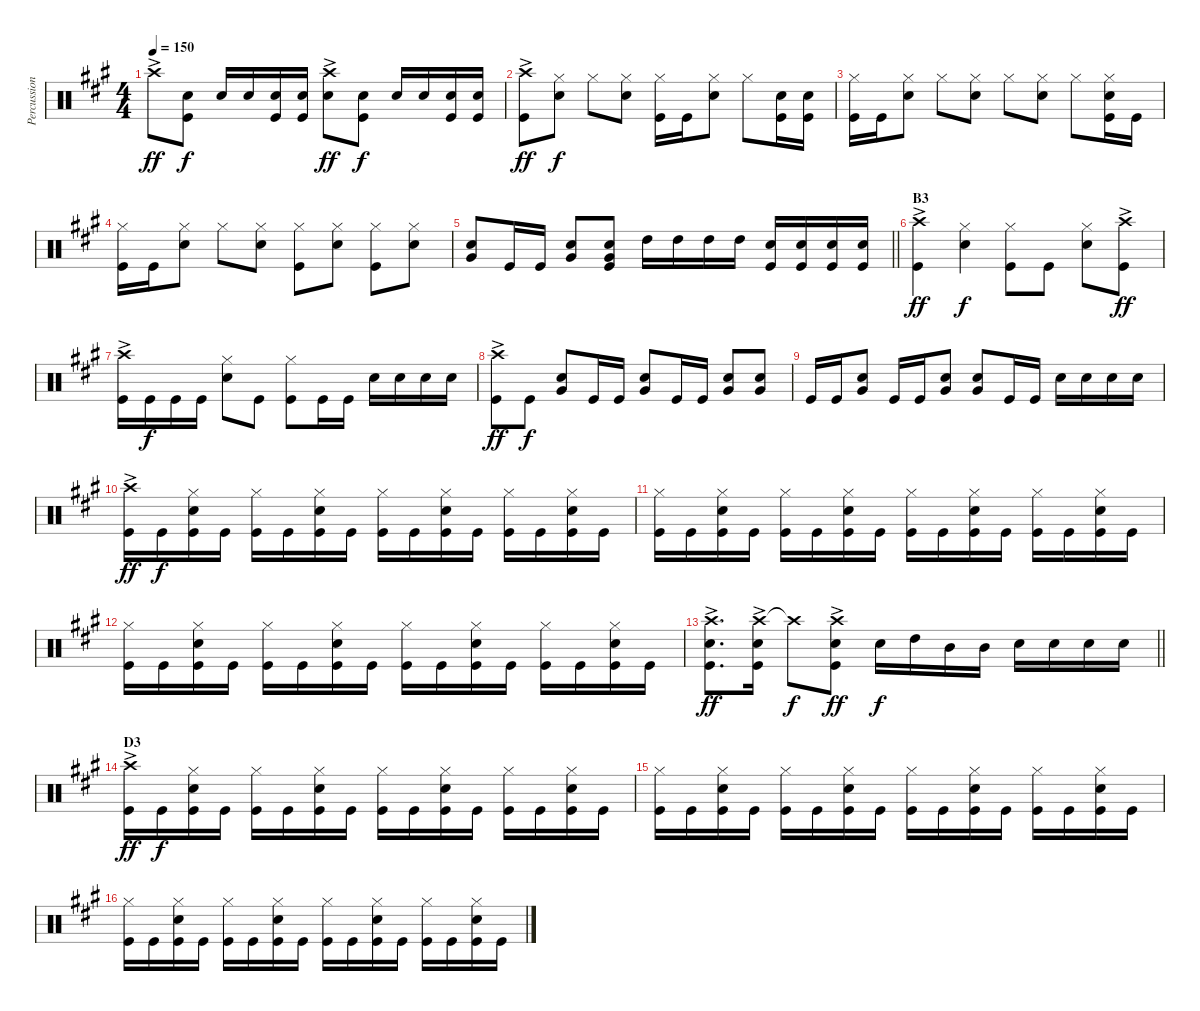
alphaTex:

\track ("Percussion" "Percussion") {instrument percussion}
\staff {score}
\articulation defaults
\ts (4 4)
\tempo 150
\clef neutral
\ks a "Crash high (hit)"{ac}.8{dy ff}
("Snare (hit) 2" "Kick (hit)").8{dy f} "Snare (hit) 2".16 "Snare (hit) 2".16 ("Snare (hit) 2" "Kick (hit)").16 ("Snare (hit) 2" "Kick (hit)").16 ("Crash high (hit)"{ac} "Snare (hit) 2").8{dy ff} ("Snare (hit) 2" "Kick (hit)").8{dy f} "Snare (hit) 2".16 "Snare (hit) 2".16 ("Snare (hit) 2" "Kick (hit)").16 ("Snare (hit) 2" "Kick (hit)").16 |
("Crash high (hit)"{ac} "Kick (hit)").8{dy ff} ("Hi-Hat (closed)" "Snare (hit) 2").8{dy f} "Hi-Hat (closed)".8 ("Hi-Hat (closed)" "Snare (hit) 2").8 ("Kick (hit)" "Hi-Hat (closed)").16 "Kick (hit)".16 ("Hi-Hat (closed)" "Snare (hit) 2").8 "Hi-Hat (closed)".8 ("Snare (hit) 2" "Kick (hit)").16 ("Kick (hit)" "Snare (hit) 2").16 |
("Hi-Hat (closed)" "Kick (hit)").16 "Kick (hit)".16 ("Hi-Hat (closed)" "Snare (hit) 2").8 "Hi-Hat (closed)".8 ("Hi-Hat (closed)" "Snare (hit) 2").8 "Hi-Hat (closed)".8 ("Hi-Hat (closed)" "Snare (hit) 2").8 "Hi-Hat (closed)".8 ("Hi-Hat (closed)" "Snare (hit) 2" "Kick (hit)").16 "Kick (hit)".16 |
("Kick (hit)" "Hi-Hat (closed)").16 "Kick (hit)".16 ("Hi-Hat (closed)" "Snare (hit) 2").8 "Hi-Hat (closed)".8 ("Hi-Hat (closed)" "Snare (hit) 2").8 ("Hi-Hat (closed)" "Kick (hit)").8 ("Hi-Hat (closed)" "Snare (hit) 2").8 ("Hi-Hat (closed)" "Kick (hit)").8 ("Hi-Hat (closed)" "Snare (hit) 2").8 |
\barLineRight lightlight
("Snare (hit) 2" "Very Low Tom (hit)").8 "Kick (hit)".16 "Kick (hit)".16 ("Snare (hit) 2" "Very Low Tom (hit)").8 ("Snare (hit) 2" "Very Low Tom (hit)" "Kick (hit)").8 "High Tom (hit)".16 "High Tom (hit)".16 "High Tom (hit)".16 "High Tom (hit)".16 ("Snare (hit) 2" "Kick (hit)").16 ("Snare (hit) 2" "Kick (hit)").16 ("Snare (hit) 2" "Kick (hit)").16 ("Snare (hit) 2" "Kick (hit)").16 |
\section ("" "B3")
("Crash high (hit)"{ac} "Kick (hit)").4{dy ff} ("Hi-Hat (closed)" "Snare (hit) 2").4{dy f} ("Hi-Hat (closed)" "Kick (hit)").8 "Kick (hit)".8 ("Hi-Hat (closed)" "Snare (hit) 2").8 ("Crash high (hit)"{ac} "Kick (hit)").8{dy ff} |
("Crash high (hit)"{ac} "Kick (hit)").16 "Kick (hit)".16{dy f} "Kick (hit)".16 "Kick (hit)".16 ("Hi-Hat (closed)" "Snare (hit) 2").8 "Kick (hit)".8 ("Hi-Hat (closed)" "Kick (hit)").8 "Kick (hit)".16 "Kick (hit)".16 "Snare (hit) 2".16 "Snare (hit) 2".16 "Snare (hit) 2".16 "Snare (hit) 2".16 |
("Crash high (hit)"{ac} "Kick (hit)").8{dy ff} "Kick (hit)".8{dy f} ("Snare (hit) 2" "Very Low Tom (hit)").8 "Kick (hit)".16 "Kick (hit)".16 ("Snare (hit) 2" "Very Low Tom (hit)").8 "Kick (hit)".16 "Kick (hit)".16 ("Snare (hit) 2" "Very Low Tom (hit)").8 ("Snare (hit) 2" "Very Low Tom (hit)").8 |
"Kick (hit)".16 "Kick (hit)".16 ("Snare (hit) 2" "Very Low Tom (hit)").8 "Kick (hit)".16 "Kick (hit)".16 ("Snare (hit) 2" "Very Low Tom (hit)").8 ("Snare (hit) 2" "Very Low Tom (hit)").8 "Kick (hit)".16 "Kick (hit)".16 "Snare (hit) 2".16 "Snare (hit) 2".16 "Snare (hit) 2".16 "Snare (hit) 2".16 |
("Crash high (hit)"{ac} "Kick (hit)").16{dy ff} "Kick (hit)".16{dy f} ("Hi-Hat (closed)" "Snare (hit) 2" "Kick (hit)").16 "Kick (hit)".16 ("Hi-Hat (closed)" "Kick (hit)").16 "Kick (hit)".16 ("Kick (hit)" "Hi-Hat (closed)" "Snare (hit) 2").16 "Kick (hit)".16 ("Kick (hit)" "Hi-Hat (closed)").16 "Kick (hit)".16 ("Kick (hit)" "Hi-Hat (closed)" "Snare (hit) 2").16 "Kick (hit)".16 ("Kick (hit)" "Hi-Hat (closed)").16 "Kick (hit)".16 ("Hi-Hat (closed)" "Kick (hit)" "Snare (hit) 2").16 "Kick (hit)".16 |
("Hi-Hat (closed)" "Kick (hit)").16 "Kick (hit)".16 ("Hi-Hat (closed)" "Snare (hit) 2" "Kick (hit)").16 "Kick (hit)".16 ("Hi-Hat (closed)" "Kick (hit)").16 "Kick (hit)".16 ("Kick (hit)" "Hi-Hat (closed)" "Snare (hit) 2").16 "Kick (hit)".16 ("Kick (hit)" "Hi-Hat (closed)").16 "Kick (hit)".16 ("Kick (hit)" "Hi-Hat (closed)" "Snare (hit) 2").16 "Kick (hit)".16 ("Kick (hit)" "Hi-Hat (closed)").16 "Kick (hit)".16 ("Hi-Hat (closed)" "Kick (hit)" "Snare (hit) 2").16 "Kick (hit)".16 |
("Hi-Hat (closed)" "Kick (hit)").16 "Kick (hit)".16 ("Hi-Hat (closed)" "Snare (hit) 2" "Kick (hit)").16 "Kick (hit)".16 ("Hi-Hat (closed)" "Kick (hit)").16 "Kick (hit)".16 ("Kick (hit)" "Hi-Hat (closed)" "Snare (hit) 2").16 "Kick (hit)".16 ("Kick (hit)" "Hi-Hat (closed)").16 "Kick (hit)".16 ("Kick (hit)" "Hi-Hat (closed)" "Snare (hit) 2").16 "Kick (hit)".16 ("Kick (hit)" "Hi-Hat (closed)").16 "Kick (hit)".16 ("Hi-Hat (closed)" "Kick (hit)" "Snare (hit) 2").16 "Kick (hit)".16 |
\barLineRight lightlight
("Crash high (hit)"{ac} "Snare (hit) 2" "Kick (hit)").8{d dy ff} ("Crash high (hit)"{ac} "Snare (hit) 2" "Kick (hit)").16 "Crash high (hit)"{t}.8{dy f} ("Crash high (hit)"{ac} "Snare (hit) 2" "Kick (hit)").8{dy ff} "Snare (hit) 2".16{dy f} "High Tom (hit)".16 "Mid Tom (hit)".16 "Mid Tom (hit)".16 "Snare (hit) 2".16 "Snare (hit) 2".16 "Snare (hit) 2".16 "Snare (hit) 2".16 |
\section ("" "D3")
("Crash high (hit)"{ac} "Kick (hit)").16{dy ff} "Kick (hit)".16{dy f} ("Hi-Hat (closed)" "Kick (hit)" "Snare (hit) 2").16 "Kick (hit)".16 ("Hi-Hat (closed)" "Kick (hit)").16 "Kick (hit)".16 ("Hi-Hat (closed)" "Kick (hit)" "Snare (hit) 2").16 "Kick (hit)".16 ("Kick (hit)" "Hi-Hat (closed)").16 "Kick (hit)".16 ("Kick (hit)" "Hi-Hat (closed)" "Snare (hit) 2").16 "Kick (hit)".16 ("Kick (hit)" "Hi-Hat (closed)").16 "Kick (hit)".16 ("Kick (hit)" "Hi-Hat (closed)" "Snare (hit) 2").16 "Kick (hit)".16 |
("Hi-Hat (closed)" "Kick (hit)").16 "Kick (hit)".16 ("Hi-Hat (closed)" "Kick (hit)" "Snare (hit) 2").16 "Kick (hit)".16 ("Hi-Hat (closed)" "Kick (hit)").16 "Kick (hit)".16 ("Hi-Hat (closed)" "Kick (hit)" "Snare (hit) 2").16 "Kick (hit)".16 ("Kick (hit)" "Hi-Hat (closed)").16 "Kick (hit)".16 ("Kick (hit)" "Hi-Hat (closed)" "Snare (hit) 2").16 "Kick (hit)".16 ("Kick (hit)" "Hi-Hat (closed)").16 "Kick (hit)".16 ("Kick (hit)" "Hi-Hat (closed)" "Snare (hit) 2").16 "Kick (hit)".16 |
("Hi-Hat (closed)" "Kick (hit)").16 "Kick (hit)".16 ("Hi-Hat (closed)" "Kick (hit)" "Snare (hit) 2").16 "Kick (hit)".16 ("Hi-Hat (closed)" "Kick (hit)").16 "Kick (hit)".16 ("Hi-Hat (closed)" "Kick (hit)" "Snare (hit) 2").16 "Kick (hit)".16 ("Kick (hit)" "Hi-Hat (closed)").16 "Kick (hit)".16 ("Kick (hit)" "Hi-Hat (closed)" "Snare (hit) 2").16 "Kick (hit)".16 ("Kick (hit)" "Hi-Hat (closed)").16 "Kick (hit)".16 ("Kick (hit)" "Hi-Hat (closed)" "Snare (hit) 2").16 "Kick (hit)".16
